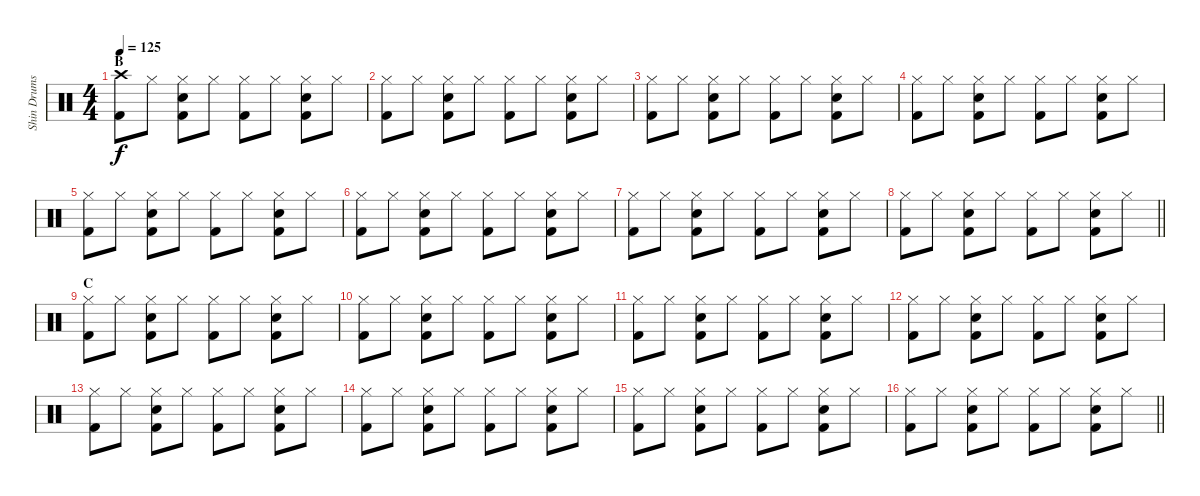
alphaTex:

\track ("Shin Drums" "Shin Drums") {instrument percussion}
\staff {score}
\articulation defaults
\ts (4 4)
\section ("" "B")
\tempo 125
\clef neutral
\ks c
("Crash high (hit)" "Kick (hit) 2").8{dy f} "Hi-Hat (closed)".8 ("Hi-Hat (closed)" "Snare (hit) 2" "Kick (hit) 2").8 "Hi-Hat (closed)".8 ("Hi-Hat (closed)" "Kick (hit) 2").8 "Hi-Hat (closed)".8 ("Hi-Hat (closed)" "Snare (hit) 2" "Kick (hit) 2").8 "Hi-Hat (closed)".8 |
("Hi-Hat (closed)" "Kick (hit) 2").8 "Hi-Hat (closed)".8 ("Hi-Hat (closed)" "Snare (hit) 2" "Kick (hit) 2").8 "Hi-Hat (closed)".8 ("Hi-Hat (closed)" "Kick (hit) 2").8 "Hi-Hat (closed)".8 ("Hi-Hat (closed)" "Snare (hit) 2" "Kick (hit) 2").8 "Hi-Hat (closed)".8 |
("Hi-Hat (closed)" "Kick (hit) 2").8 "Hi-Hat (closed)".8 ("Hi-Hat (closed)" "Snare (hit) 2" "Kick (hit) 2").8 "Hi-Hat (closed)".8 ("Hi-Hat (closed)" "Kick (hit) 2").8 "Hi-Hat (closed)".8 ("Hi-Hat (closed)" "Snare (hit) 2" "Kick (hit) 2").8 "Hi-Hat (closed)".8 |
("Hi-Hat (closed)" "Kick (hit) 2").8 "Hi-Hat (closed)".8 ("Hi-Hat (closed)" "Snare (hit) 2" "Kick (hit) 2").8 "Hi-Hat (closed)".8 ("Hi-Hat (closed)" "Kick (hit) 2").8 "Hi-Hat (closed)".8 ("Hi-Hat (closed)" "Snare (hit) 2" "Kick (hit) 2").8 "Hi-Hat (closed)".8 |
("Hi-Hat (closed)" "Kick (hit) 2").8 "Hi-Hat (closed)".8 ("Hi-Hat (closed)" "Snare (hit) 2" "Kick (hit) 2").8 "Hi-Hat (closed)".8 ("Hi-Hat (closed)" "Kick (hit) 2").8 "Hi-Hat (closed)".8 ("Hi-Hat (closed)" "Snare (hit) 2" "Kick (hit) 2").8 "Hi-Hat (closed)".8 |
("Hi-Hat (closed)" "Kick (hit) 2").8 "Hi-Hat (closed)".8 ("Hi-Hat (closed)" "Snare (hit) 2" "Kick (hit) 2").8 "Hi-Hat (closed)".8 ("Hi-Hat (closed)" "Kick (hit) 2").8 "Hi-Hat (closed)".8 ("Hi-Hat (closed)" "Snare (hit) 2" "Kick (hit) 2").8 "Hi-Hat (closed)".8 |
("Hi-Hat (closed)" "Kick (hit) 2").8 "Hi-Hat (closed)".8 ("Hi-Hat (closed)" "Snare (hit) 2" "Kick (hit) 2").8 "Hi-Hat (closed)".8 ("Hi-Hat (closed)" "Kick (hit) 2").8 "Hi-Hat (closed)".8 ("Hi-Hat (closed)" "Snare (hit) 2" "Kick (hit) 2").8 "Hi-Hat (closed)".8 |
\barLineRight lightlight
("Hi-Hat (closed)" "Kick (hit) 2").8 "Hi-Hat (closed)".8 ("Hi-Hat (closed)" "Snare (hit) 2" "Kick (hit) 2").8 "Hi-Hat (closed)".8 ("Hi-Hat (closed)" "Kick (hit) 2").8 "Hi-Hat (closed)".8 ("Hi-Hat (closed)" "Snare (hit) 2" "Kick (hit) 2").8 "Hi-Hat (closed)".8 |
\section ("" "C")
("Hi-Hat (closed)" "Kick (hit) 2").8 "Hi-Hat (closed)".8 ("Hi-Hat (closed)" "Snare (hit) 2" "Kick (hit) 2").8 "Hi-Hat (closed)".8 ("Hi-Hat (closed)" "Kick (hit) 2").8 "Hi-Hat (closed)".8 ("Hi-Hat (closed)" "Snare (hit) 2" "Kick (hit) 2").8 "Hi-Hat (closed)".8 |
("Hi-Hat (closed)" "Kick (hit) 2").8 "Hi-Hat (closed)".8 ("Hi-Hat (closed)" "Snare (hit) 2" "Kick (hit) 2").8 "Hi-Hat (closed)".8 ("Hi-Hat (closed)" "Kick (hit) 2").8 "Hi-Hat (closed)".8 ("Hi-Hat (closed)" "Snare (hit) 2" "Kick (hit) 2").8 "Hi-Hat (closed)".8 |
("Hi-Hat (closed)" "Kick (hit) 2").8 "Hi-Hat (closed)".8 ("Hi-Hat (closed)" "Snare (hit) 2" "Kick (hit) 2").8 "Hi-Hat (closed)".8 ("Hi-Hat (closed)" "Kick (hit) 2").8 "Hi-Hat (closed)".8 ("Hi-Hat (closed)" "Snare (hit) 2" "Kick (hit) 2").8 "Hi-Hat (closed)".8 |
("Hi-Hat (closed)" "Kick (hit) 2").8 "Hi-Hat (closed)".8 ("Hi-Hat (closed)" "Snare (hit) 2" "Kick (hit) 2").8 "Hi-Hat (closed)".8 ("Hi-Hat (closed)" "Kick (hit) 2").8 "Hi-Hat (closed)".8 ("Hi-Hat (closed)" "Snare (hit) 2" "Kick (hit) 2").8 "Hi-Hat (closed)".8 |
("Hi-Hat (closed)" "Kick (hit) 2").8 "Hi-Hat (closed)".8 ("Hi-Hat (closed)" "Snare (hit) 2" "Kick (hit) 2").8 "Hi-Hat (closed)".8 ("Hi-Hat (closed)" "Kick (hit) 2").8 "Hi-Hat (closed)".8 ("Hi-Hat (closed)" "Snare (hit) 2" "Kick (hit) 2").8 "Hi-Hat (closed)".8 |
("Hi-Hat (closed)" "Kick (hit) 2").8 "Hi-Hat (closed)".8 ("Hi-Hat (closed)" "Snare (hit) 2" "Kick (hit) 2").8 "Hi-Hat (closed)".8 ("Hi-Hat (closed)" "Kick (hit) 2").8 "Hi-Hat (closed)".8 ("Hi-Hat (closed)" "Snare (hit) 2" "Kick (hit) 2").8 "Hi-Hat (closed)".8 |
("Hi-Hat (closed)" "Kick (hit) 2").8 "Hi-Hat (closed)".8 ("Hi-Hat (closed)" "Snare (hit) 2" "Kick (hit) 2").8 "Hi-Hat (closed)".8 ("Hi-Hat (closed)" "Kick (hit) 2").8 "Hi-Hat (closed)".8 ("Hi-Hat (closed)" "Snare (hit) 2" "Kick (hit) 2").8 "Hi-Hat (closed)".8 |
\barLineRight lightlight
("Hi-Hat (closed)" "Kick (hit) 2").8 "Hi-Hat (closed)".8 ("Hi-Hat (closed)" "Snare (hit) 2" "Kick (hit) 2").8 "Hi-Hat (closed)".8 ("Hi-Hat (closed)" "Kick (hit) 2").8 "Hi-Hat (closed)".8 ("Hi-Hat (closed)" "Snare (hit) 2" "Kick (hit) 2").8 "Hi-Hat (closed)".8
